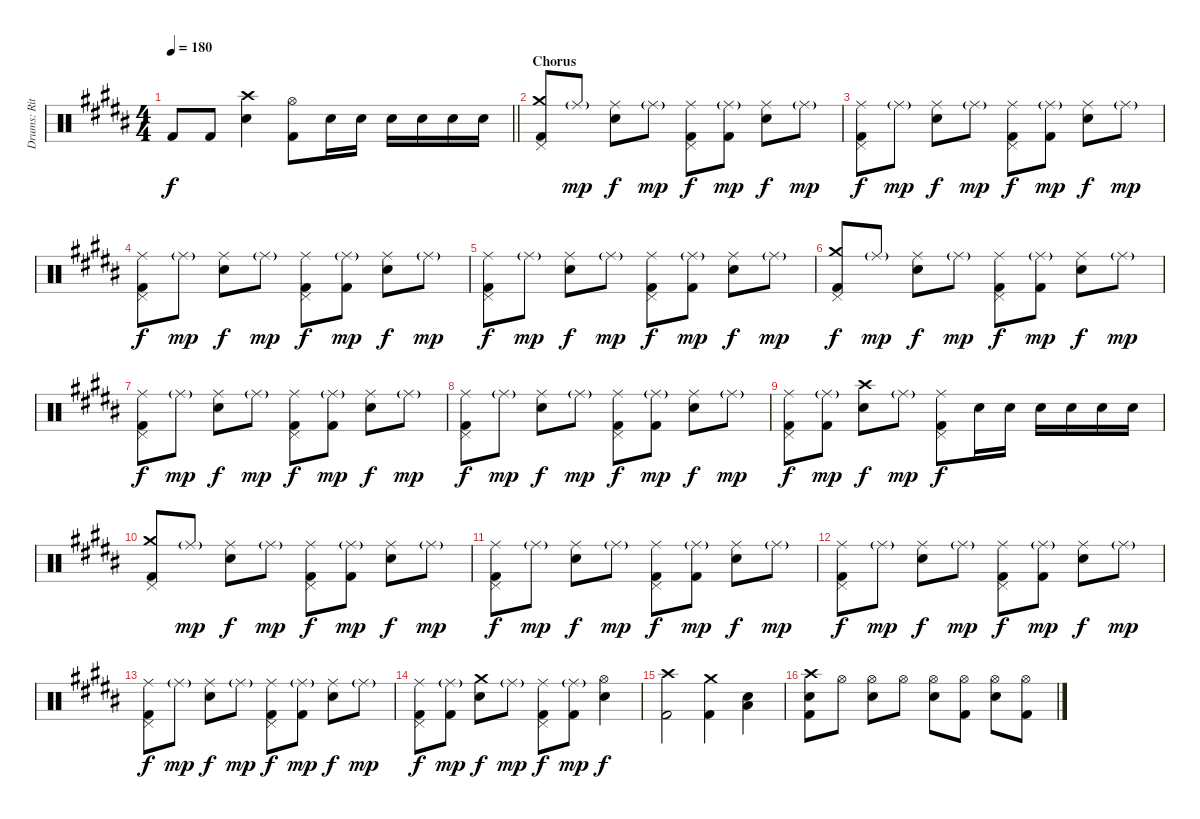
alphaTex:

\track ("Drums: Ritsu " "Drums: Rit") {instrument percussion}
\staff {score}
\articulation defaults
\ts (4 4)
\tempo 180
\clef neutral
\barLineRight lightlight
\ks b "Kick (hit) 2".8{dy f} "Kick (hit) 2".8
("Crash high (hit)" "Electric Snare (hit)").4 ("Hi-Hat (open)" "Kick (hit) 2").8 "Electric Snare (hit)".16 "Electric Snare (hit)".16 "Electric Snare (hit)".16 "Electric Snare (hit)".16 "Electric Snare (hit)".16 "Electric Snare (hit)".16 |
\section ("" "Chorus")
("Crash medium (hit)" "Pedal Hi-Hat (hit)" "Kick (hit) 2").8 "Ride (middle)"{g}.8{dy mp} ("Ride (middle)" "Electric Snare (hit)").8{dy f} "Ride (middle)"{g}.8{dy mp} ("Ride (middle)" "Pedal Hi-Hat (hit)" "Kick (hit) 2").8{dy f} ("Ride (middle)"{g} "Kick (hit) 2").8{dy mp} ("Ride (middle)" "Electric Snare (hit)").8{dy f} "Ride (middle)"{g}.8{dy mp} |
("Ride (middle)" "Pedal Hi-Hat (hit)" "Kick (hit) 2").8{dy f} "Ride (middle)"{g}.8{dy mp} ("Ride (middle)" "Electric Snare (hit)").8{dy f} "Ride (middle)"{g}.8{dy mp} ("Ride (middle)" "Pedal Hi-Hat (hit)" "Kick (hit) 2").8{dy f} ("Ride (middle)"{g} "Kick (hit) 2").8{dy mp} ("Ride (middle)" "Electric Snare (hit)").8{dy f} "Ride (middle)"{g}.8{dy mp} |
("Ride (middle)" "Pedal Hi-Hat (hit)" "Kick (hit) 2").8{dy f} "Ride (middle)"{g}.8{dy mp} ("Ride (middle)" "Electric Snare (hit)").8{dy f} "Ride (middle)"{g}.8{dy mp} ("Ride (middle)" "Pedal Hi-Hat (hit)" "Kick (hit) 2").8{dy f} ("Ride (middle)"{g} "Kick (hit) 2").8{dy mp} ("Ride (middle)" "Electric Snare (hit)").8{dy f} "Ride (middle)"{g}.8{dy mp} |
("Ride (middle)" "Pedal Hi-Hat (hit)" "Kick (hit) 2").8{dy f} "Ride (middle)"{g}.8{dy mp} ("Ride (middle)" "Electric Snare (hit)").8{dy f} "Ride (middle)"{g}.8{dy mp} ("Ride (middle)" "Pedal Hi-Hat (hit)" "Kick (hit) 2").8{dy f} ("Ride (middle)"{g} "Kick (hit) 2").8{dy mp} ("Ride (middle)" "Electric Snare (hit)").8{dy f} "Ride (middle)"{g}.8{dy mp} |
("Crash medium (hit)" "Pedal Hi-Hat (hit)" "Kick (hit) 2").8{dy f} "Ride (middle)"{g}.8{dy mp} ("Ride (middle)" "Electric Snare (hit)").8{dy f} "Ride (middle)"{g}.8{dy mp} ("Ride (middle)" "Pedal Hi-Hat (hit)" "Kick (hit) 2").8{dy f} ("Ride (middle)"{g} "Kick (hit) 2").8{dy mp} ("Ride (middle)" "Electric Snare (hit)").8{dy f} "Ride (middle)"{g}.8{dy mp} |
("Ride (middle)" "Pedal Hi-Hat (hit)" "Kick (hit) 2").8{dy f} "Ride (middle)"{g}.8{dy mp} ("Ride (middle)" "Electric Snare (hit)").8{dy f} "Ride (middle)"{g}.8{dy mp} ("Ride (middle)" "Pedal Hi-Hat (hit)" "Kick (hit) 2").8{dy f} ("Ride (middle)"{g} "Kick (hit) 2").8{dy mp} ("Ride (middle)" "Electric Snare (hit)").8{dy f} "Ride (middle)"{g}.8{dy mp} |
("Ride (middle)" "Pedal Hi-Hat (hit)" "Kick (hit) 2").8{dy f} "Ride (middle)"{g}.8{dy mp} ("Ride (middle)" "Electric Snare (hit)").8{dy f} "Ride (middle)"{g}.8{dy mp} ("Ride (middle)" "Pedal Hi-Hat (hit)" "Kick (hit) 2").8{dy f} ("Ride (middle)"{g} "Kick (hit) 2").8{dy mp} ("Ride (middle)" "Electric Snare (hit)").8{dy f} "Ride (middle)"{g}.8{dy mp} |
("Ride (middle)" "Pedal Hi-Hat (hit)" "Kick (hit) 2").8{dy f} ("Ride (middle)"{g} "Kick (hit) 2").8{dy mp} ("Crash high (hit)" "Electric Snare (hit)").8{dy f} "Ride (middle)"{g}.8{dy mp} ("Ride (middle)" "Pedal Hi-Hat (hit)" "Kick (hit) 2").8{dy f} "Electric Snare (hit)".16 "Electric Snare (hit)".16 "Electric Snare (hit)".16 "Electric Snare (hit)".16 "Electric Snare (hit)".16 "Electric Snare (hit)".16 |
("Crash medium (hit)" "Pedal Hi-Hat (hit)" "Kick (hit) 2").8 "Ride (middle)"{g}.8{dy mp} ("Ride (middle)" "Electric Snare (hit)").8{dy f} "Ride (middle)"{g}.8{dy mp} ("Ride (middle)" "Pedal Hi-Hat (hit)" "Kick (hit) 2").8{dy f} ("Ride (middle)"{g} "Kick (hit) 2").8{dy mp} ("Ride (middle)" "Electric Snare (hit)").8{dy f} "Ride (middle)"{g}.8{dy mp} |
("Ride (middle)" "Pedal Hi-Hat (hit)" "Kick (hit) 2").8{dy f} "Ride (middle)"{g}.8{dy mp} ("Ride (middle)" "Electric Snare (hit)").8{dy f} "Ride (middle)"{g}.8{dy mp} ("Ride (middle)" "Pedal Hi-Hat (hit)" "Kick (hit) 2").8{dy f} ("Ride (middle)"{g} "Kick (hit) 2").8{dy mp} ("Ride (middle)" "Electric Snare (hit)").8{dy f} "Ride (middle)"{g}.8{dy mp} |
("Ride (middle)" "Pedal Hi-Hat (hit)" "Kick (hit) 2").8{dy f} "Ride (middle)"{g}.8{dy mp} ("Ride (middle)" "Electric Snare (hit)").8{dy f} "Ride (middle)"{g}.8{dy mp} ("Ride (middle)" "Pedal Hi-Hat (hit)" "Kick (hit) 2").8{dy f} ("Ride (middle)"{g} "Kick (hit) 2").8{dy mp} ("Ride (middle)" "Electric Snare (hit)").8{dy f} "Ride (middle)"{g}.8{dy mp} |
("Ride (middle)" "Pedal Hi-Hat (hit)" "Kick (hit) 2").8{dy f} "Ride (middle)"{g}.8{dy mp} ("Ride (middle)" "Electric Snare (hit)").8{dy f} "Ride (middle)"{g}.8{dy mp} ("Ride (middle)" "Pedal Hi-Hat (hit)" "Kick (hit) 2").8{dy f} ("Ride (middle)"{g} "Kick (hit) 2").8{dy mp} ("Ride (middle)" "Electric Snare (hit)").8{dy f} "Ride (middle)"{g}.8{dy mp} |
("Ride (middle)" "Pedal Hi-Hat (hit)" "Kick (hit) 2").8{dy f} ("Ride (middle)"{g} "Kick (hit) 2").8{dy mp} ("Crash medium (hit)" "Electric Snare (hit)").8{dy f} "Ride (middle)"{g}.8{dy mp} ("Ride (middle)" "Pedal Hi-Hat (hit)" "Kick (hit) 2").8{dy f} ("Ride (middle)"{g} "Kick (hit) 2").8{dy mp} ("Hi-Hat (open)" "Electric Snare (hit)").4{dy f} |
("Crash high (hit)" "Kick (hit) 2").2 ("Crash medium (hit)" "Kick (hit) 2").4 ("Electric Snare (hit)" "Low Floor Tom (hit)").4 |
("Crash high (hit)" "Electric Snare (hit)" "Kick (hit) 2").8 "Hi-Hat (open)".8 ("Hi-Hat (open)" "Electric Snare (hit)").8 "Hi-Hat (open)".8 ("Hi-Hat (open)" "Electric Snare (hit)").8 ("Hi-Hat (open)" "Kick (hit) 2").8 ("Hi-Hat (open)" "Electric Snare (hit)").8 ("Hi-Hat (open)" "Kick (hit) 2").8
